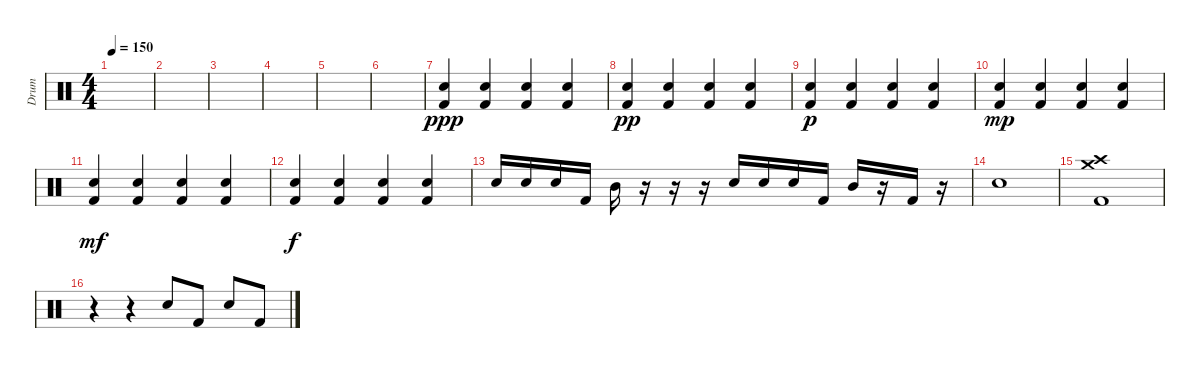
\track ("Drum" "Drum") {instrument percussion}
\staff {score}
\articulation defaults
\ts (4 4)
\tempo 150
\clef neutral
\ks c
|
|
|
|
|
|
("Electric Snare (hit)" "Kick (hit) 2").4{dy ppp} ("Electric Snare (hit)" "Kick (hit) 2").4 ("Electric Snare (hit)" "Kick (hit) 2").4 ("Electric Snare (hit)" "Kick (hit) 2").4 |
("Electric Snare (hit)" "Kick (hit) 2").4{dy pp} ("Electric Snare (hit)" "Kick (hit) 2").4 ("Electric Snare (hit)" "Kick (hit) 2").4 ("Electric Snare (hit)" "Kick (hit) 2").4 |
("Electric Snare (hit)" "Kick (hit) 2").4{dy p} ("Electric Snare (hit)" "Kick (hit) 2").4 ("Electric Snare (hit)" "Kick (hit) 2").4 ("Electric Snare (hit)" "Kick (hit) 2").4 |
("Electric Snare (hit)" "Kick (hit) 2").4{dy mp} ("Electric Snare (hit)" "Kick (hit) 2").4 ("Electric Snare (hit)" "Kick (hit) 2").4 ("Electric Snare (hit)" "Kick (hit) 2").4 |
("Electric Snare (hit)" "Kick (hit) 2").4{dy mf} ("Electric Snare (hit)" "Kick (hit) 2").4 ("Electric Snare (hit)" "Kick (hit) 2").4 ("Electric Snare (hit)" "Kick (hit) 2").4 |
("Electric Snare (hit)" "Kick (hit) 2").4{dy f} ("Electric Snare (hit)" "Kick (hit) 2").4 ("Electric Snare (hit)" "Kick (hit) 2").4 ("Electric Snare (hit)" "Kick (hit) 2").4 |
"Electric Snare (hit)".16 "Electric Snare (hit)".16 "Electric Snare (hit)".16 "Kick (hit) 2".16 "Mid Tom (hit)".16 r.16 r.16 r.16 "Electric Snare (hit)".16 "Electric Snare (hit)".16 "Electric Snare (hit)".16 "Kick (hit) 2".16 "Mid Tom (hit)".16 r.16 "Kick (hit) 2".16 r.16 |
"Electric Snare (hit)".1 |
("Crash high (hit)" "Crash medium (hit)" "Kick (hit) 2").1 |
r.4 r.4 "Electric Snare (hit)".8 "Kick (hit) 2".8 "Electric Snare (hit)".8 "Kick (hit) 2".8
